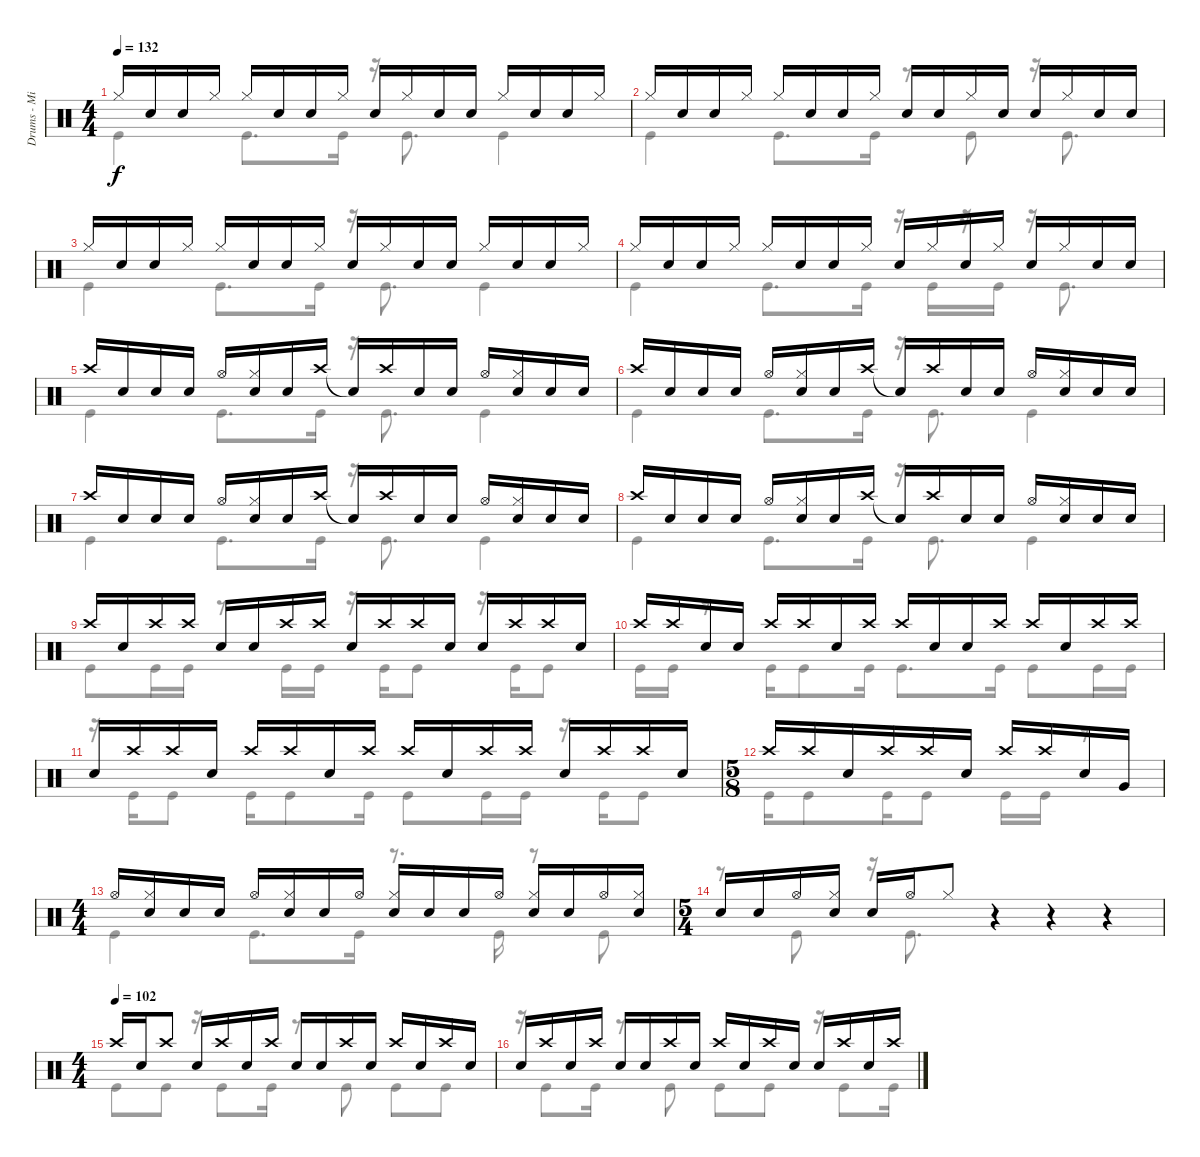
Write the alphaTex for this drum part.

\track ("Drums - Mike Portnoy" "Drums - Mi") {instrument percussion}
\staff {score}
\articulation defaults
\voice
\ts (4 4)
\tempo 132
\clef neutral
\ks c "Hi-Hat (closed)".16{dy f} "Snare (hit) 2".16 "Snare (hit) 2".16 "Hi-Hat (closed)".16 "Hi-Hat (closed)".16 "Snare (hit) 2".16 "Snare (hit) 2".16 "Hi-Hat (closed)".16 "Snare (hit) 2".16 "Hi-Hat (closed)".16 "Snare (hit) 2".16 "Snare (hit) 2".16 "Hi-Hat (closed)".16 "Snare (hit) 2".16 "Snare (hit) 2".16 "Hi-Hat (closed)".16
|
"Hi-Hat (closed)".16 "Snare (hit) 2".16 "Snare (hit) 2".16 "Hi-Hat (closed)".16 "Hi-Hat (closed)".16 "Snare (hit) 2".16 "Snare (hit) 2".16 "Hi-Hat (closed)".16 "Snare (hit) 2".16 "Snare (hit) 2".16 "Hi-Hat (closed)".16 "Snare (hit) 2".16 "Snare (hit) 2".16 "Hi-Hat (closed)".16 "Snare (hit) 2".16 "Snare (hit) 2".16 |
"Hi-Hat (closed)".16 "Snare (hit) 2".16 "Snare (hit) 2".16 "Hi-Hat (closed)".16 "Hi-Hat (closed)".16 "Snare (hit) 2".16 "Snare (hit) 2".16 "Hi-Hat (closed)".16 "Snare (hit) 2".16 "Hi-Hat (closed)".16 "Snare (hit) 2".16 "Snare (hit) 2".16 "Hi-Hat (closed)".16 "Snare (hit) 2".16 "Snare (hit) 2".16 "Hi-Hat (closed)".16 |
"Hi-Hat (closed)".16 "Snare (hit) 2".16 "Snare (hit) 2".16 "Hi-Hat (closed)".16 "Hi-Hat (closed)".16 "Snare (hit) 2".16 "Snare (hit) 2".16 "Hi-Hat (closed)".16 "Snare (hit) 2".16 "Hi-Hat (closed)".16 "Snare (hit) 2".16 "Hi-Hat (closed)".16 "Snare (hit) 2".16 "Hi-Hat (closed)".16 "Snare (hit) 2".16 "Snare (hit) 2".16 |
"Crash high (hit)".16 "Snare (hit) 2".16 "Snare (hit) 2".16 "Snare (hit) 2".16 "Hi-Hat (open)".16 ("Hi-Hat (closed)" "Snare (hit) 2").16 "Snare (hit) 2".16 "Crash high (hit)".16 "Snare (hit)"{t}.16 "Crash high (hit)".16 "Snare (hit) 2".16 "Snare (hit) 2".16 "Hi-Hat (open)".16 ("Hi-Hat (closed)" "Snare (hit) 2").16 "Snare (hit) 2".16 "Snare (hit) 2".16 |
"Crash high (hit)".16 "Snare (hit) 2".16 "Snare (hit) 2".16 "Snare (hit) 2".16 "Hi-Hat (open)".16 ("Hi-Hat (closed)" "Snare (hit) 2").16 "Snare (hit) 2".16 "Crash high (hit)".16 "Snare (hit)"{t}.16 "Crash high (hit)".16 "Snare (hit) 2".16 "Snare (hit) 2".16 "Hi-Hat (open)".16 ("Hi-Hat (closed)" "Snare (hit) 2").16 "Snare (hit) 2".16 "Snare (hit) 2".16 |
"Crash high (hit)".16 "Snare (hit) 2".16 "Snare (hit) 2".16 "Snare (hit) 2".16 "Hi-Hat (open)".16 ("Hi-Hat (closed)" "Snare (hit) 2").16 "Snare (hit) 2".16 "Crash high (hit)".16 "Snare (hit)"{t}.16 "Crash high (hit)".16 "Snare (hit) 2".16 "Snare (hit) 2".16 "Hi-Hat (open)".16 ("Hi-Hat (closed)" "Snare (hit) 2").16 "Snare (hit) 2".16 "Snare (hit) 2".16 |
"Crash high (hit)".16 "Snare (hit) 2".16 "Snare (hit) 2".16 "Snare (hit) 2".16 "Hi-Hat (open)".16 ("Hi-Hat (closed)" "Snare (hit) 2").16 "Snare (hit) 2".16 "Crash high (hit)".16 "Snare (hit)"{t}.16 "Crash high (hit)".16 "Snare (hit) 2".16 "Snare (hit) 2".16 "Hi-Hat (open)".16 ("Hi-Hat (closed)" "Snare (hit) 2").16 "Snare (hit) 2".16 "Snare (hit) 2".16 |
"Crash high (hit)".16 "Snare (hit) 2".16 "Crash high (hit)".16 "Crash high (hit)".16 "Snare (hit) 2".16 "Snare (hit) 2".16 "Crash high (hit)".16 "Crash high (hit)".16 "Snare (hit) 2".16 "Crash high (hit)".16 "Crash high (hit)".16 "Snare (hit) 2".16 "Snare (hit) 2".16 "Crash high (hit)".16 "Crash high (hit)".16 "Snare (hit) 2".16 |
"Crash high (hit)".16 "Crash high (hit)".16 "Snare (hit) 2".16 "Snare (hit) 2".16 "Crash high (hit)".16 "Crash high (hit)".16 "Snare (hit) 2".16 "Crash high (hit)".16 "Crash high (hit)".16 "Snare (hit) 2".16 "Snare (hit) 2".16 "Crash high (hit)".16 "Crash high (hit)".16 "Snare (hit) 2".16 "Crash high (hit)".16 "Crash high (hit)".16 |
"Snare (hit) 2".16 "Crash high (hit)".16 "Crash high (hit)".16 "Snare (hit) 2".16 "Crash high (hit)".16 "Crash high (hit)".16 "Snare (hit) 2".16 "Crash high (hit)".16 "Crash high (hit)".16 "Snare (hit) 2".16 "Crash high (hit)".16 "Crash high (hit)".16 "Snare (hit) 2".16 "Crash high (hit)".16 "Crash high (hit)".16 "Snare (hit) 2".16 |
\ts (5 8)
"Crash high (hit)".16 "Crash high (hit)".16 "Snare (hit) 2".16 "Crash high (hit)".16 "Crash high (hit)".16 "Snare (hit) 2".16 "Crash high (hit)".16 "Crash high (hit)".16 "Snare (hit) 2".16 "Very Low Tom (hit)".16 |
\ts (4 4)
"Hi-Hat (open)".16 ("Hi-Hat (closed)" "Snare (hit) 2").16 "Snare (hit) 2".16 "Snare (hit) 2".16 "Hi-Hat (open)".16 ("Hi-Hat (closed)" "Snare (hit) 2").16 "Snare (hit) 2".16 "Hi-Hat (open)".16 ("Hi-Hat (closed)" "Snare (hit) 2").16 "Snare (hit) 2".16 "Snare (hit) 2".16 "Hi-Hat (open)".16 ("Hi-Hat (closed)" "Snare (hit) 2").16 "Snare (hit) 2".16 "Hi-Hat (open)".16 ("Hi-Hat (closed)" "Snare (hit) 2").16 |
\ts (5 4)
"Snare (hit) 2".16 "Snare (hit) 2".16 "Hi-Hat (open)".16 ("Hi-Hat (closed)" "Snare (hit) 2").16 "Snare (hit) 2".16 "Hi-Hat (open)".16 "Hi-Hat (closed)".8 r.4 r.4 r.4 |
\ts (4 4)
\tempo (102)
"Crash high (hit)".16 "Snare (hit) 2".16 "Crash high (hit)".8 "Snare (hit) 2".16 "Crash high (hit)".16 "Snare (hit) 2".16 "Crash high (hit)".16 "Snare (hit) 2".16 "Snare (hit) 2".16 "Crash high (hit)".16 "Snare (hit) 2".16 "Crash high (hit)".16 "Snare (hit) 2".16 "Crash high (hit)".16 "Snare (hit) 2".16 |
"Snare (hit) 2".16 "Crash high (hit)".16 "Snare (hit) 2".16 "Crash high (hit)".16 "Snare (hit) 2".16 "Snare (hit) 2".16 "Crash high (hit)".16 "Snare (hit) 2".16 "Crash high (hit)".16 "Snare (hit) 2".16 "Crash high (hit)".16 "Snare (hit) 2".16 "Snare (hit) 2".16 "Crash high (hit)".16 "Snare (hit) 2".16 "Crash high (hit)".16
\voice
\clef neutral
\ottava regular
\simile none
\ks c "Kick (hit)".4{dy f} "Kick (hit)".8{d} "Kick (hit)".16
r.16 "Kick (hit)".8{d} "Kick (hit)".4 |
"Kick (hit)".4 "Kick (hit)".8{d} "Kick (hit)".16 r.8 "Kick (hit)".8 r.16 "Kick (hit)".8{d} |
"Kick (hit)".4 "Kick (hit)".8{d} "Kick (hit)".16 r.16 "Kick (hit)".8{d} "Kick (hit)".4 |
"Kick (hit)".4 "Kick (hit)".8{d} "Kick (hit)".16 r.16 "Kick (hit)".16 r.16 "Kick (hit)".16 r.16 "Kick (hit)".8{d} |
"Kick (hit)".4 "Kick (hit)".8{d} "Kick (hit)".16 r.16 "Kick (hit)".8{d} "Kick (hit)".4 |
"Kick (hit)".4 "Kick (hit)".8{d} "Kick (hit)".16 r.16 "Kick (hit)".8{d} "Kick (hit)".4 |
"Kick (hit)".4 "Kick (hit)".8{d} "Kick (hit)".16 r.16 "Kick (hit)".8{d} "Kick (hit)".4 |
"Kick (hit)".4 "Kick (hit)".8{d} "Kick (hit)".16 r.16 "Kick (hit)".8{d} "Kick (hit)".4 |
"Kick (hit)".8 "Kick (hit)".16 "Kick (hit)".16 r.8 "Kick (hit)".16 "Kick (hit)".16 r.16 "Kick (hit)".16 "Kick (hit)".8 r.16 "Kick (hit)".16 "Kick (hit)".8 |
"Kick (hit)".16 "Kick (hit)".16 r.8 "Kick (hit)".16 "Kick (hit)".8 "Kick (hit)".16 "Kick (hit)".8{d} "Kick (hit)".16 "Kick (hit)".8 "Kick (hit)".16 "Kick (hit)".16 |
r.16 "Kick (hit)".16 "Kick (hit)".8 "Kick (hit)".16 "Kick (hit)".8 "Kick (hit)".16 "Kick (hit)".8 "Kick (hit)".16 "Kick (hit)".16 r.16 "Kick (hit)".16 "Kick (hit)".8 |
"Kick (hit)".16 "Kick (hit)".8 "Kick (hit)".16 "Kick (hit)".8 "Kick (hit)".16 "Kick (hit)".16 r.8 |
"Kick (hit)".4 "Kick (hit)".8{d} "Kick (hit)".16 r.8{d} "Kick (hit)".16 r.8 "Kick (hit)".8 |
r.8 "Kick (hit)".8 r.16 "Kick (hit)".8{d} r.4 r.4 r.4 |
"Kick (hit)".8 "Kick (hit)".8 r.16 "Kick (hit)".8 "Kick (hit)".16 r.8 "Kick (hit)".8 "Kick (hit)".8 "Kick (hit)".8 |
r.16 "Kick (hit)".8 "Kick (hit)".16 r.8 "Kick (hit)".8 "Kick (hit)".8 "Kick (hit)".8 r.16 "Kick (hit)".8 "Kick (hit)".16
